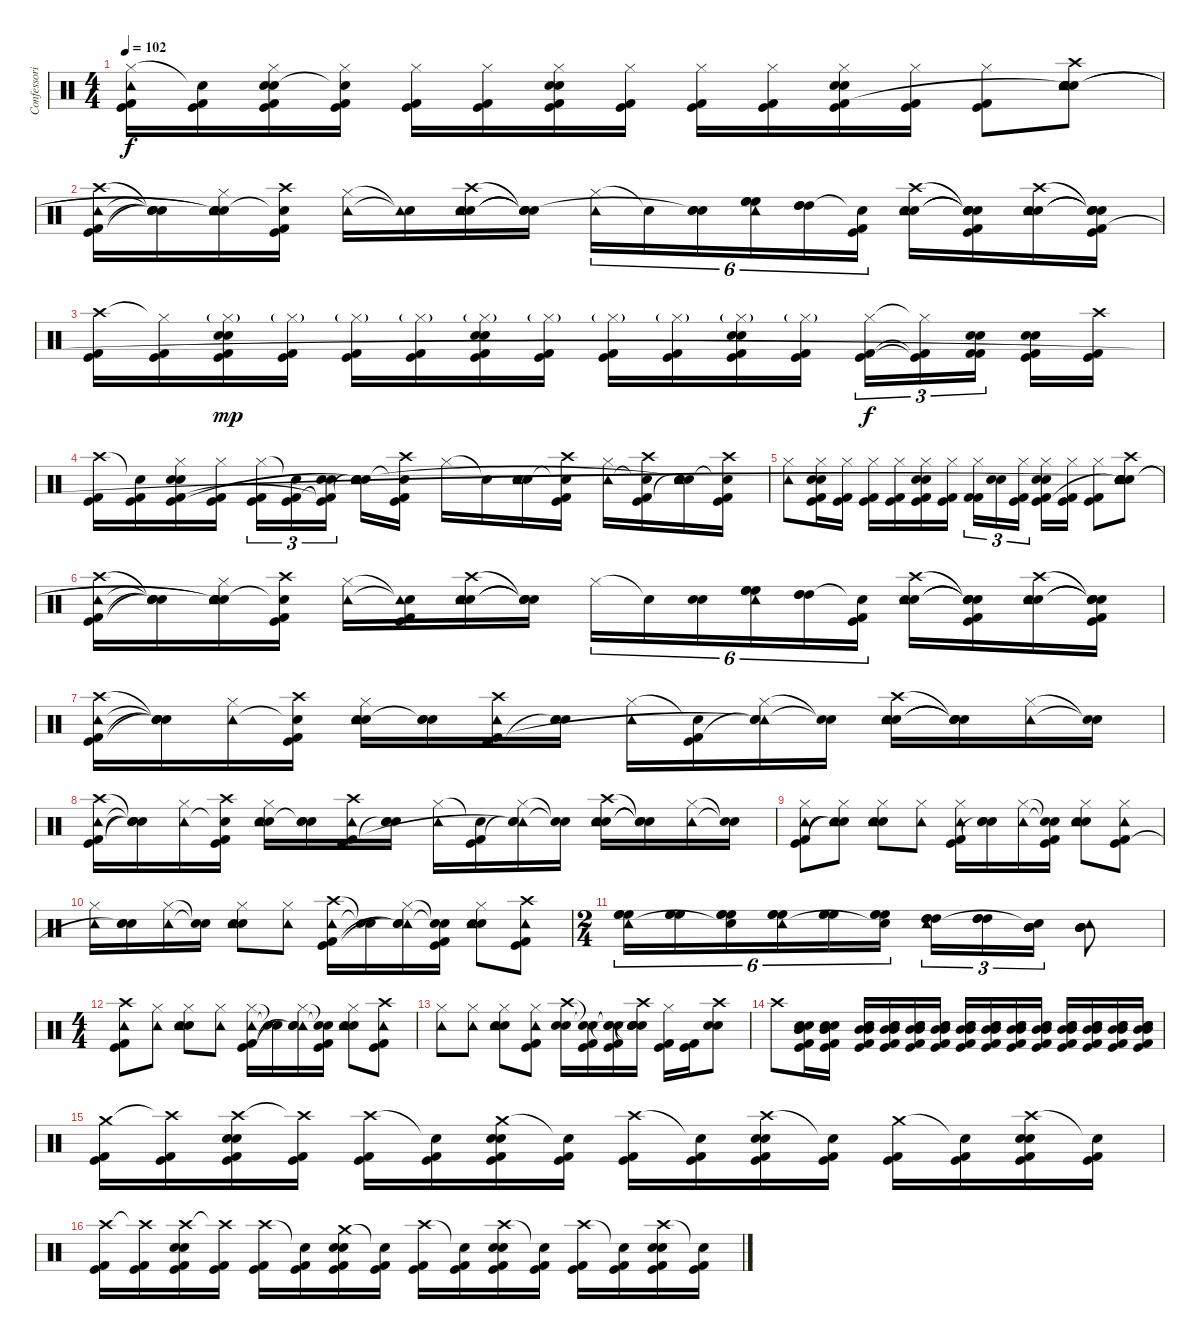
\track ("Confessori" "Confessori") {instrument percussion}
\staff {score}
\articulation defaults
\ts (4 4)
\tempo 102
\clef neutral
\ks c
("Hi-Hat (closed)" "Tambourine (hit)" "Kick (hit)" "Kick (hit) 2").16{dy f} ("Snare (hit)"{t} "Kick (hit)" "Kick (hit) 2").16 ("Hi-Hat (closed)" "Electric Snare (hit)" "Snare (hit) 2" "Kick (hit)" "Kick (hit) 2").16 ("Hi-Hat (closed)" "Snare (hit)"{t} "Kick (hit)" "Kick (hit) 2").16 ("Hi-Hat (closed)" "Kick (hit)" "Kick (hit) 2").16 ("Hi-Hat (closed)" "Kick (hit)" "Kick (hit) 2").16 ("Hi-Hat (closed)" "Electric Snare (hit)" "Snare (hit) 2" "Kick (hit)" "Kick (hit) 2").16 ("Hi-Hat (closed)" "Kick (hit)" "Kick (hit) 2").16 ("Hi-Hat (closed)" "Kick (hit)" "Kick (hit) 2").16 ("Hi-Hat (closed)" "Kick (hit)" "Kick (hit) 2").16 ("Hi-Hat (closed)" "Electric Snare (hit)" "Snare (hit) 2" "Kick (hit)" "Kick (hit) 2").16 ("Hi-Hat (closed)" "Kick (hit)" "Kick (hit) 2").16 ("Hi-Hat (closed)" "Kick (hit)" "Kick (hit) 2").8 ("Crash high (hit)" "Electric Snare (hit)" "Snare (hit) 2" "Tambourine (hit)" "Snare (hit)"{t} "Snare (hit)"{t}).8 |
("Crash high (hit)" "Tambourine (hit)" "Kick (hit)" "Kick (hit) 2").16 ("Snare (hit)"{t} "Snare (hit)"{t} "Snare (hit)"{t} "Snare (hit)"{t}).16 ("Hi-Hat (closed)" "Electric Snare (hit)" "Snare (hit) 2" "Tambourine (hit)" "Snare (hit)"{t} "Snare (hit)"{t}).16 ("Crash high (hit)" "Snare (hit)"{t} "Kick (hit) 2" "Kick (hit)").16 ("Hi-Hat (closed)" "Tambourine (hit)").16 ("Snare (hit)"{t} "Tambourine (hit)"{t}).16 ("Crash high (hit)" "Electric Snare (hit)" "Snare (hit) 2" "Tambourine (hit)").16 ("Snare (hit)"{t} "Snare (hit)"{t} "Snare (hit)"{t} "Snare (hit)"{t}).16 ("Hi-Hat (closed)" "Tambourine (hit)").16{tu (6 4)} "Snare (hit)"{t}.16{tu (6 4)} ("Electric Snare (hit)" "Snare (hit) 2" "Snare (hit)"{t}).16{tu (6 4)} ("Tambourine (hit)" "High Floor Tom (hit)" "High Floor Tom (hit)" "High Floor Tom (hit)").16{tu (6 4)} ("High Tom (hit)" "High Tom (hit)" "High Tom (hit)").16{tu (6 4)} ("Snare (hit)"{t} "Kick (hit)" "Kick (hit) 2").16{tu (6 4)} ("Crash high (hit)" "Electric Snare (hit)" "Snare (hit) 2" "Tambourine (hit)").16 ("Snare (hit)"{t} "Snare (hit)"{t} "Snare (hit)"{t} "Snare (hit)"{t} "Kick (hit)" "Kick (hit) 2").16 ("Crash high (hit)" "Electric Snare (hit)" "Snare (hit) 2" "Tambourine (hit)").16 ("Snare (hit)"{t} "Snare (hit)"{t} "Snare (hit)"{t} "Snare (hit)"{t} "Kick (hit)" "Kick (hit) 2").16 |
("Crash high (hit)" "Kick (hit)" "Kick (hit) 2").16 ("Hi-Hat (closed)"{t} "Kick (hit)" "Kick (hit) 2").16 ("Hi-Hat (closed)"{g} "Electric Snare (hit)" "Snare (hit) 2" "Kick (hit)" "Kick (hit) 2").16{dy mp} ("Hi-Hat (closed)"{g} "Kick (hit)" "Kick (hit) 2").16 ("Hi-Hat (closed)"{g} "Kick (hit)" "Kick (hit) 2").16 ("Hi-Hat (closed)"{g} "Kick (hit)" "Kick (hit) 2").16 ("Hi-Hat (closed)"{g} "Electric Snare (hit)" "Snare (hit) 2" "Kick (hit)" "Kick (hit) 2").16 ("Hi-Hat (closed)"{g} "Kick (hit)" "Kick (hit) 2").16 ("Hi-Hat (closed)"{g} "Kick (hit)" "Kick (hit) 2").16 ("Hi-Hat (closed)"{g} "Kick (hit)" "Kick (hit) 2").16 ("Hi-Hat (closed)"{g} "Electric Snare (hit)" "Snare (hit) 2" "Kick (hit)" "Kick (hit) 2").16 ("Hi-Hat (closed)"{g} "Kick (hit)" "Kick (hit) 2").16 ("Hi-Hat (closed)" "Kick (hit)" "Kick (hit) 2").16{tu (3 2) dy f} ("Hi-Hat (closed)"{t} "Kick (hit)"{t} "Kick (hit) 2"{t}).16{tu (3 2)} ("Electric Snare (hit)" "Snare (hit) 2" "Kick (hit) 2" "Kick (hit) 2").16{tu (3 2)} ("Electric Snare (hit)" "Snare (hit) 2" "Kick (hit) 2" "Kick (hit)").16 ("Crash high (hit)" "Kick (hit) 2" "Kick (hit)").16 |
("Crash high (hit)" "Kick (hit) 2" "Kick (hit)").16 ("Snare (hit)"{t} "Kick (hit) 2" "Kick (hit)").16 ("Hi-Hat (closed)" "Electric Snare (hit)" "Snare (hit) 2" "Kick (hit) 2" "Kick (hit)").16 ("Hi-Hat (closed)" "Kick (hit) 2" "Kick (hit)").16 ("Hi-Hat (closed)" "Kick (hit) 2" "Kick (hit)").16{tu (3 2)} ("Snare (hit)"{t} "Kick (hit)" "Kick (hit) 2").16{tu (3 2)} ("Electric Snare (hit)" "Snare (hit) 2" "Kick (hit)"{t} "Kick (hit) 2"{t}).16{tu (3 2)} ("Electric Snare (hit)" "Snare (hit) 2" "Tambourine (hit)" "Snare (hit)"{t} "Snare (hit)"{t}).16 ("Crash high (hit)" "Snare (hit)"{t} "Kick (hit)" "Kick (hit) 2").16 "Hi-Hat (closed)".16 "Snare (hit)"{t}.16 ("Electric Snare (hit)" "Snare (hit) 2" "Tambourine (hit)").16 ("Crash high (hit)" "Snare (hit)"{t} "Kick (hit) 2" "Kick (hit)").16 ("Hi-Hat (closed)" "Tambourine (hit)").16 ("Crash high (hit)" "Snare (hit)"{t} "Kick (hit) 2" "Kick (hit)").16 ("Electric Snare (hit)" "Snare (hit) 2" "Tambourine (hit)" "Snare (hit)"{t} "Snare (hit)"{t}).16 ("Crash high (hit)" "Snare (hit)"{t} "Kick (hit) 2" "Kick (hit)").16 |
("Hi-Hat (closed)" "Tambourine (hit)").8 ("Hi-Hat (closed)" "Electric Snare (hit)" "Snare (hit) 2" "Kick (hit)" "Kick (hit) 2").16 ("Hi-Hat (closed)" "Kick (hit)" "Kick (hit) 2").16 ("Hi-Hat (closed)" "Kick (hit)" "Kick (hit) 2").16 ("Hi-Hat (closed)" "Kick (hit)" "Kick (hit) 2").16 ("Hi-Hat (closed)" "Electric Snare (hit)" "Snare (hit) 2" "Kick (hit)" "Kick (hit) 2").16 ("Hi-Hat (closed)" "Kick (hit)" "Kick (hit) 2").16 ("Hi-Hat (closed)" "Kick (hit) 2" "Kick (hit) 2").16{tu (3 2)} ("Electric Snare (hit)" "Snare (hit) 2").16{tu (3 2)} ("Hi-Hat (closed)" "Kick (hit) 2" "Kick (hit)").16{tu (3 2)} ("Hi-Hat (closed)" "Electric Snare (hit)" "Snare (hit) 2" "Kick (hit) 2" "Kick (hit)").16 ("Hi-Hat (closed)" "Kick (hit) 2" "Kick (hit)").16 ("Hi-Hat (closed)" "Kick (hit)" "Kick (hit) 2").8 ("Crash high (hit)" "Snare (hit) 2" "Electric Snare (hit)" "Tambourine (hit)" "Snare (hit)"{t} "Snare (hit)"{t}).8 |
("Crash high (hit)" "Tambourine (hit)" "Kick (hit)" "Kick (hit) 2").16 ("Snare (hit)"{t} "Snare (hit)"{t} "Snare (hit)"{t} "Snare (hit)"{t}).16 ("Hi-Hat (closed)" "Electric Snare (hit)" "Snare (hit) 2" "Tambourine (hit)" "Snare (hit)"{t} "Snare (hit)"{t}).16 ("Crash high (hit)" "Snare (hit)"{t} "Kick (hit) 2" "Kick (hit)").16 ("Hi-Hat (closed)" "Tambourine (hit)").16 ("Snare (hit)"{t} "Tambourine (hit)"{t} "Kick (hit)" "Kick (hit) 2").16 ("Crash high (hit)" "Electric Snare (hit)" "Snare (hit) 2" "Tambourine (hit)").16 ("Snare (hit)"{t} "Snare (hit)"{t} "Snare (hit)"{t} "Snare (hit)"{t}).16 "Hi-Hat (closed)".16{tu (6 4)} "Snare (hit)"{t}.16{tu (6 4)} ("Electric Snare (hit)" "Snare (hit) 2").16{tu (6 4)} ("Tambourine (hit)" "High Floor Tom (hit)" "High Floor Tom (hit)" "High Floor Tom (hit)").16{tu (6 4)} ("High Tom (hit)" "High Tom (hit)" "High Tom (hit)").16{tu (6 4)} ("Snare (hit)"{t} "Kick (hit)" "Kick (hit) 2").16{tu (6 4)} ("Crash high (hit)" "Electric Snare (hit)" "Snare (hit) 2" "Tambourine (hit)").16 ("Snare (hit)"{t} "Snare (hit)"{t} "Snare (hit)"{t} "Snare (hit)"{t} "Kick (hit)" "Kick (hit) 2").16 ("Crash high (hit)" "Electric Snare (hit)" "Snare (hit) 2" "Tambourine (hit)").16 ("Snare (hit)"{t} "Snare (hit)"{t} "Snare (hit)"{t} "Snare (hit)"{t} "Kick (hit)" "Kick (hit) 2").16 |
("Crash high (hit)" "Tambourine (hit)" "Kick (hit)" "Kick (hit) 2").16 ("Snare (hit)"{t} "Snare (hit)"{t} "Snare (hit)"{t} "Snare (hit)"{t}).16 ("Hi-Hat (closed)" "Tambourine (hit)").16 ("Crash high (hit)" "Snare (hit)"{t} "Kick (hit) 2" "Kick (hit)").16 ("Hi-Hat (closed)" "Electric Snare (hit)" "Snare (hit) 2" "Tambourine (hit)").16 ("Electric Snare (hit)" "Snare (hit) 2" "Snare (hit)"{t}).16 ("Crash high (hit)" "Tambourine (hit)" "Kick (hit)" "Kick (hit) 2").16 ("Electric Snare (hit)" "Snare (hit) 2" "Snare (hit)"{t}).16 ("Hi-Hat (closed)" "Tambourine (hit)").16 ("Snare (hit)"{t} "Kick (hit)" "Kick (hit) 2").16 ("Hi-Hat (closed)" "Tambourine (hit)" "Snare (hit)"{t} "Snare (hit)"{t}).16 ("Snare (hit)"{t} "Snare (hit)"{t}).16 ("Crash high (hit)" "Electric Snare (hit)" "Snare (hit) 2" "Tambourine (hit)").16 ("Snare (hit)"{t} "Snare (hit)"{t} "Snare (hit)"{t} "Snare (hit)"{t}).16 ("Hi-Hat (closed)" "Tambourine (hit)").16 ("Snare (hit)"{t} "Snare (hit)"{t}).16 |
("Crash high (hit)" "Tambourine (hit)" "Kick (hit)" "Kick (hit) 2").16 ("Snare (hit)"{t} "Snare (hit)"{t} "Snare (hit)"{t} "Snare (hit)"{t}).16 ("Hi-Hat (closed)" "Tambourine (hit)").16 ("Crash high (hit)" "Snare (hit)"{t} "Kick (hit) 2" "Kick (hit)").16 ("Hi-Hat (closed)" "Electric Snare (hit)" "Snare (hit) 2" "Tambourine (hit)").16 ("Electric Snare (hit)" "Snare (hit) 2" "Snare (hit)"{t}).16 ("Crash high (hit)" "Tambourine (hit)" "Kick (hit)" "Kick (hit) 2").16 ("Electric Snare (hit)" "Snare (hit) 2" "Snare (hit)"{t}).16 ("Hi-Hat (closed)" "Tambourine (hit)").16 ("Snare (hit)"{t} "Kick (hit)" "Kick (hit) 2").16 ("Hi-Hat (closed)" "Tambourine (hit)" "Snare (hit)"{t} "Snare (hit)"{t}).16 ("Snare (hit)"{t} "Snare (hit)"{t}).16 ("Crash high (hit)" "Electric Snare (hit)" "Snare (hit) 2" "Tambourine (hit)").16 ("Snare (hit)"{t} "Snare (hit)"{t} "Snare (hit)"{t} "Snare (hit)"{t}).16 ("Hi-Hat (closed)" "Tambourine (hit)").16 ("Snare (hit)"{t} "Snare (hit)"{t}).16 |
("Hi-Hat (closed)" "Kick (hit)" "Kick (hit) 2" "Tambourine (hit)").8 ("Hi-Hat (closed)" "Snare (hit)"{t} "Snare (hit)"{t} "Tambourine (hit)").8 ("Hi-Hat (closed)" "Electric Snare (hit)" "Snare (hit) 2" "Tambourine (hit)").8 ("Hi-Hat (closed)" "Tambourine (hit)").8 ("Hi-Hat (closed)" "Tambourine (hit)" "Kick (hit)" "Kick (hit) 2").16 ("Electric Snare (hit)" "Snare (hit) 2" "Snare (hit)"{t}).16 ("Hi-Hat (closed)" "Tambourine (hit)").16 ("Snare (hit)"{t} "Snare (hit)"{t} "Kick (hit) 2" "Kick (hit)").16 ("Hi-Hat (closed)" "Electric Snare (hit)" "Snare (hit) 2" "Tambourine (hit)").8 ("Hi-Hat (closed)" "Tambourine (hit)" "Kick (hit)" "Kick (hit) 2").8 |
("Hi-Hat (closed)" "Tambourine (hit)").16 ("Electric Snare (hit)" "Snare (hit) 2" "Snare (hit)"{t}).16 ("Hi-Hat (closed)" "Tambourine (hit)").16 ("Snare (hit)"{t} "Snare (hit)"{t}).16 ("Hi-Hat (closed)" "Electric Snare (hit)" "Snare (hit) 2" "Tambourine (hit)").8 ("Hi-Hat (closed)" "Tambourine (hit)").8 ("Crash high (hit)" "Tambourine (hit)" "Kick (hit)" "Kick (hit) 2").16 ("Snare (hit)"{t} "Snare (hit)"{t}).16 ("Hi-Hat (closed)" "Tambourine (hit)" "Snare (hit)"{t} "Snare (hit)"{t}).16 ("Snare (hit)"{t} "Snare (hit)"{t} "Kick (hit) 2" "Kick (hit)").16 ("Hi-Hat (closed)" "Electric Snare (hit)" "Snare (hit) 2" "Tambourine (hit)").8 ("Crash high (hit)" "Tambourine (hit)" "Kick (hit)" "Kick (hit) 2").8 |
\ts (2 4)
("High Floor Tom (hit)" "High Floor Tom (hit)" "High Floor Tom (hit)" "Tambourine (hit)").16{tu (6 4)} ("High Floor Tom (hit)" "High Floor Tom (hit)" "High Floor Tom (hit)").16{tu (6 4)} ("High Floor Tom (hit)" "High Floor Tom (hit)" "High Floor Tom (hit)" "Snare (hit)"{t}).16{tu (6 4)} ("High Floor Tom (hit)" "High Floor Tom (hit)" "High Floor Tom (hit)" "Tambourine (hit)").16{tu (6 4)} ("High Floor Tom (hit)" "High Floor Tom (hit)" "High Floor Tom (hit)").16{tu (6 4)} ("High Floor Tom (hit)" "High Floor Tom (hit)" "High Floor Tom (hit)" "Snare (hit)"{t}).16{tu (6 4)} ("High Tom (hit)" "High Tom (hit)" "High Tom (hit)" "Tambourine (hit)").16{tu (3 2)} ("High Tom (hit)" "High Tom (hit)" "High Tom (hit)").16{tu (3 2)} ("Mid Tom (hit)" "Mid Tom (hit)" "Mid Tom (hit)" "Snare (hit)"{t}).16{tu (3 2)} ("Mid Tom (hit)" "Mid Tom (hit)" "Mid Tom (hit)" "Tambourine (hit)").8 |
\ts (4 4)
("Crash high (hit)" "Tambourine (hit)" "Kick (hit)" "Kick (hit) 2").8 ("Hi-Hat (closed)" "Tambourine (hit)").8 ("Hi-Hat (closed)" "Electric Snare (hit)" "Snare (hit) 2" "Tambourine (hit)").8 ("Hi-Hat (closed)" "Tambourine (hit)").8 ("Hi-Hat (closed)" "Tambourine (hit)" "Kick (hit)" "Kick (hit) 2").16 ("Snare (hit)"{t} "Snare (hit)"{t}).16 ("Hi-Hat (closed)" "Tambourine (hit)" "Snare (hit)"{t} "Snare (hit)"{t}).16 ("Snare (hit)"{t} "Snare (hit)"{t} "Kick (hit)" "Kick (hit) 2").16 ("Hi-Hat (closed)" "Electric Snare (hit)" "Snare (hit) 2" "Tambourine (hit)").8 ("Crash high (hit)" "Tambourine (hit)" "Kick (hit)" "Kick (hit) 2").8 |
("Hi-Hat (closed)" "Tambourine (hit)").8 ("Hi-Hat (closed)" "Tambourine (hit)").8 ("Hi-Hat (closed)" "Electric Snare (hit)" "Snare (hit) 2" "Tambourine (hit)").8 ("Hi-Hat (closed)" "Tambourine (hit)" "Kick (hit)" "Kick (hit) 2").8 ("Crash high (hit)" "Electric Snare (hit)" "Snare (hit) 2").16 ("Snare (hit)"{t} "Snare (hit)"{t} "Kick (hit) 2" "Kick (hit)").16 ("Snare (hit)"{t} "Snare (hit)"{t} "Snare (hit)"{t} "Kick (hit) 2" "Kick (hit)").16 ("Crash high (hit)" "Electric Snare (hit)" "Snare (hit) 2" "Snare (hit)"{t} "Snare (hit)"{t}).16 ("Hi-Hat (closed)" "Kick (hit)" "Kick (hit) 2").16 ("Kick (hit)" "Kick (hit) 2").16 ("Crash high (hit)" "Electric Snare (hit)" "Snare (hit) 2").8 |
"Crash high (hit)".8 ("Electric Snare (hit)" "Snare (hit) 2" "Mid Tom (hit)" "Mid Tom (hit)" "Kick (hit)" "Kick (hit) 2").16 ("Electric Snare (hit)" "Snare (hit) 2" "Mid Tom (hit)" "Mid Tom (hit)" "Kick (hit)" "Kick (hit) 2").16 ("Electric Snare (hit)" "Snare (hit) 2" "Mid Tom (hit)" "Mid Tom (hit)" "Kick (hit)" "Kick (hit) 2").16 ("Electric Snare (hit)" "Snare (hit) 2" "Mid Tom (hit)" "Mid Tom (hit)" "Kick (hit)" "Kick (hit) 2").16 ("Electric Snare (hit)" "Snare (hit) 2" "Mid Tom (hit)" "Mid Tom (hit)" "Kick (hit)" "Kick (hit) 2").16 ("Electric Snare (hit)" "Snare (hit) 2" "Mid Tom (hit)" "Mid Tom (hit)" "Kick (hit)" "Kick (hit) 2").16 ("Electric Snare (hit)" "Snare (hit) 2" "Mid Tom (hit)" "Mid Tom (hit)" "Kick (hit)" "Kick (hit) 2").16 ("Electric Snare (hit)" "Snare (hit) 2" "Mid Tom (hit)" "Mid Tom (hit)" "Kick (hit)" "Kick (hit) 2").16 ("Electric Snare (hit)" "Snare (hit) 2" "Mid Tom (hit)" "Mid Tom (hit)" "Kick (hit)" "Kick (hit) 2").16 ("Electric Snare (hit)" "Snare (hit) 2" "Mid Tom (hit)" "Mid Tom (hit)" "Kick (hit)" "Kick (hit) 2").16 ("Electric Snare (hit)" "Snare (hit) 2" "Mid Tom (hit)" "Mid Tom (hit)" "Kick (hit)" "Kick (hit) 2").16 ("Electric Snare (hit)" "Snare (hit) 2" "Mid Tom (hit)" "Mid Tom (hit)" "Kick (hit)" "Kick (hit) 2").16 ("Electric Snare (hit)" "Snare (hit) 2" "Mid Tom (hit)" "Mid Tom (hit)" "Kick (hit)" "Kick (hit) 2").16 ("Electric Snare (hit)" "Snare (hit) 2" "Mid Tom (hit)" "Mid Tom (hit)" "Kick (hit)" "Kick (hit) 2").16 |
("Crash medium (hit)" "Kick (hit) 2" "Kick (hit)").16 ("Crash high (hit)"{t} "Kick (hit) 2" "Kick (hit)").16 ("Crash high (hit)" "Electric Snare (hit)" "Snare (hit) 2" "Kick (hit) 2" "Kick (hit)").16 ("Crash high (hit)"{t} "Kick (hit) 2" "Kick (hit)").16 ("Crash high (hit)" "Kick (hit) 2" "Kick (hit)").16 ("Snare (hit)"{t} "Kick (hit) 2" "Kick (hit)").16 ("Crash medium (hit)" "Electric Snare (hit)" "Snare (hit) 2" "Kick (hit) 2" "Kick (hit)").16 ("Snare (hit)"{t} "Kick (hit) 2" "Kick (hit)").16 ("Crash high (hit)" "Kick (hit) 2" "Kick (hit)").16 ("Snare (hit)"{t} "Kick (hit) 2" "Kick (hit)").16 ("Crash high (hit)" "Electric Snare (hit)" "Snare (hit) 2" "Kick (hit) 2" "Kick (hit)").16 ("Snare (hit)"{t} "Kick (hit) 2" "Kick (hit)").16 ("Crash medium (hit)" "Kick (hit) 2" "Kick (hit)").16 ("Snare (hit)"{t} "Kick (hit) 2" "Kick (hit)").16 ("Crash high (hit)" "Electric Snare (hit)" "Snare (hit) 2" "Kick (hit) 2" "Kick (hit)").16 ("Snare (hit)"{t} "Kick (hit) 2" "Kick (hit)").16 |
("Crash high (hit)" "Kick (hit) 2" "Kick (hit)").16 ("Crash high (hit)"{t} "Kick (hit) 2" "Kick (hit)").16 ("Crash high (hit)" "Electric Snare (hit)" "Snare (hit) 2" "Kick (hit) 2" "Kick (hit)").16 ("Crash high (hit)"{t} "Kick (hit) 2" "Kick (hit)").16 ("Crash high (hit)" "Kick (hit) 2" "Kick (hit)").16 ("Snare (hit)"{t} "Kick (hit) 2" "Kick (hit)").16 ("Crash medium (hit)" "Electric Snare (hit)" "Snare (hit) 2" "Kick (hit) 2" "Kick (hit)").16 ("Snare (hit)"{t} "Kick (hit) 2" "Kick (hit)").16 ("Crash high (hit)" "Kick (hit) 2" "Kick (hit)").16 ("Snare (hit)"{t} "Kick (hit) 2" "Kick (hit)").16 ("Crash high (hit)" "Electric Snare (hit)" "Snare (hit) 2" "Kick (hit) 2" "Kick (hit)").16 ("Snare (hit)"{t} "Kick (hit) 2" "Kick (hit)").16 ("Crash high (hit)" "Kick (hit) 2" "Kick (hit)").16 ("Snare (hit)"{t} "Kick (hit) 2" "Kick (hit)").16 ("Crash high (hit)" "Electric Snare (hit)" "Snare (hit) 2" "Kick (hit) 2" "Kick (hit)").16 ("Snare (hit)"{t} "Kick (hit) 2" "Kick (hit)").16
